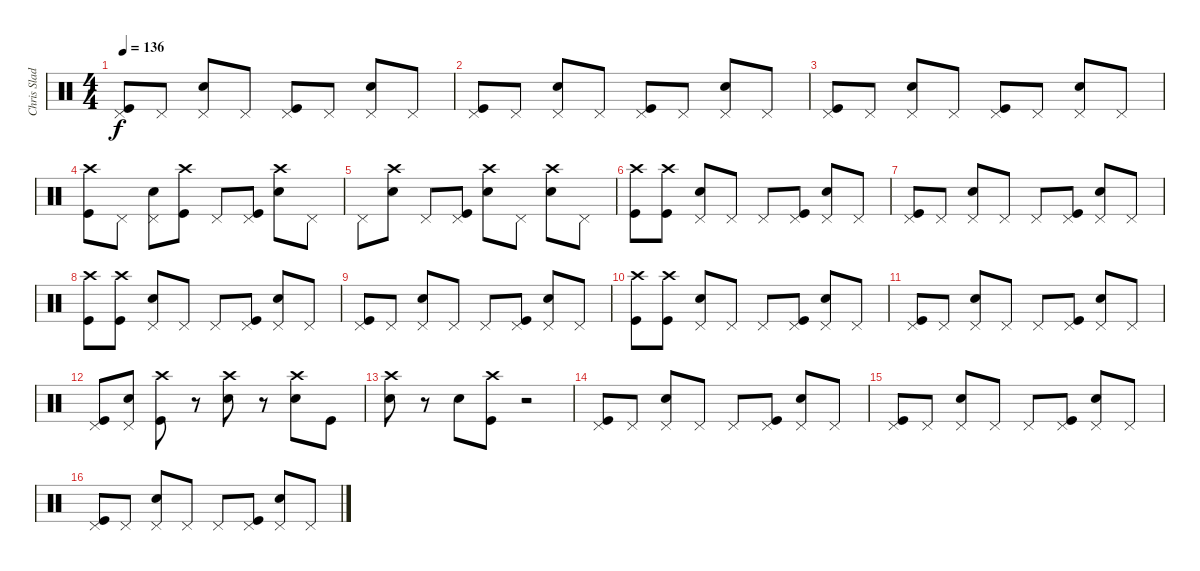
\track ("Chris Slade" "Chris Slad") {instrument percussion}
\staff {score}
\articulation defaults
\ts (4 4)
\tempo 136
\clef neutral
\ks c
("Pedal Hi-Hat (hit)" "Kick (hit)").8{dy f} "Pedal Hi-Hat (hit)".8 ("Pedal Hi-Hat (hit)" "Snare (hit) 2").8 "Pedal Hi-Hat (hit)".8 ("Pedal Hi-Hat (hit)" "Kick (hit)").8 "Pedal Hi-Hat (hit)".8 ("Pedal Hi-Hat (hit)" "Snare (hit) 2").8 "Pedal Hi-Hat (hit)".8 |
("Pedal Hi-Hat (hit)" "Kick (hit)").8 "Pedal Hi-Hat (hit)".8 ("Pedal Hi-Hat (hit)" "Snare (hit) 2").8 "Pedal Hi-Hat (hit)".8 ("Pedal Hi-Hat (hit)" "Kick (hit)").8 "Pedal Hi-Hat (hit)".8 ("Pedal Hi-Hat (hit)" "Snare (hit) 2").8 "Pedal Hi-Hat (hit)".8 |
("Pedal Hi-Hat (hit)" "Kick (hit)").8 "Pedal Hi-Hat (hit)".8 ("Pedal Hi-Hat (hit)" "Snare (hit) 2").8 "Pedal Hi-Hat (hit)".8 ("Pedal Hi-Hat (hit)" "Kick (hit)").8 "Pedal Hi-Hat (hit)".8 ("Pedal Hi-Hat (hit)" "Snare (hit) 2").8 "Pedal Hi-Hat (hit)".8 |
("Crash high (hit)" "Kick (hit)").8 "Pedal Hi-Hat (hit)".8 ("Pedal Hi-Hat (hit)" "Snare (hit) 2").8 ("Crash high (hit)" "Kick (hit)").8 "Pedal Hi-Hat (hit)".8 ("Pedal Hi-Hat (hit)" "Kick (hit)").8 ("Crash high (hit)" "Snare (hit) 2").8 "Pedal Hi-Hat (hit)".8 |
"Pedal Hi-Hat (hit)".8 ("Crash high (hit)" "Snare (hit) 2").8 "Pedal Hi-Hat (hit)".8 ("Pedal Hi-Hat (hit)" "Kick (hit)").8 ("Crash high (hit)" "Snare (hit) 2").8 "Pedal Hi-Hat (hit)".8 ("Crash high (hit)" "Snare (hit) 2").8 "Pedal Hi-Hat (hit)".8 |
("Crash high (hit)" "Kick (hit)").8 ("Crash high (hit)" "Kick (hit)").8 ("Pedal Hi-Hat (hit)" "Snare (hit) 2").8 "Pedal Hi-Hat (hit)".8 "Pedal Hi-Hat (hit)".8 ("Pedal Hi-Hat (hit)" "Kick (hit)").8 ("Pedal Hi-Hat (hit)" "Snare (hit) 2").8 "Pedal Hi-Hat (hit)".8 |
("Pedal Hi-Hat (hit)" "Kick (hit)").8 "Pedal Hi-Hat (hit)".8 ("Pedal Hi-Hat (hit)" "Snare (hit) 2").8 "Pedal Hi-Hat (hit)".8 "Pedal Hi-Hat (hit)".8 ("Pedal Hi-Hat (hit)" "Kick (hit)").8 ("Pedal Hi-Hat (hit)" "Snare (hit) 2").8 "Pedal Hi-Hat (hit)".8 |
("Crash high (hit)" "Kick (hit)").8 ("Crash high (hit)" "Kick (hit)").8 ("Pedal Hi-Hat (hit)" "Snare (hit) 2").8 "Pedal Hi-Hat (hit)".8 "Pedal Hi-Hat (hit)".8 ("Pedal Hi-Hat (hit)" "Kick (hit)").8 ("Pedal Hi-Hat (hit)" "Snare (hit) 2").8 "Pedal Hi-Hat (hit)".8 |
("Pedal Hi-Hat (hit)" "Kick (hit)").8 "Pedal Hi-Hat (hit)".8 ("Pedal Hi-Hat (hit)" "Snare (hit) 2").8 "Pedal Hi-Hat (hit)".8 "Pedal Hi-Hat (hit)".8 ("Pedal Hi-Hat (hit)" "Kick (hit)").8 ("Pedal Hi-Hat (hit)" "Snare (hit) 2").8 "Pedal Hi-Hat (hit)".8 |
("Crash high (hit)" "Kick (hit)").8 ("Crash high (hit)" "Kick (hit)").8 ("Pedal Hi-Hat (hit)" "Snare (hit) 2").8 "Pedal Hi-Hat (hit)".8 "Pedal Hi-Hat (hit)".8 ("Pedal Hi-Hat (hit)" "Kick (hit)").8 ("Pedal Hi-Hat (hit)" "Snare (hit) 2").8 "Pedal Hi-Hat (hit)".8 |
("Pedal Hi-Hat (hit)" "Kick (hit)").8 "Pedal Hi-Hat (hit)".8 ("Pedal Hi-Hat (hit)" "Snare (hit) 2").8 "Pedal Hi-Hat (hit)".8 "Pedal Hi-Hat (hit)".8 ("Pedal Hi-Hat (hit)" "Kick (hit)").8 ("Pedal Hi-Hat (hit)" "Snare (hit) 2").8 "Pedal Hi-Hat (hit)".8 |
("Pedal Hi-Hat (hit)" "Kick (hit)").8 ("Pedal Hi-Hat (hit)" "Snare (hit) 2").8 ("Crash high (hit)" "Kick (hit)").8 r.8 ("Crash high (hit)" "Snare (hit) 2").8 r.8 ("Crash high (hit)" "Snare (hit) 2").8 "Kick (hit)".8 |
("Crash high (hit)" "Snare (hit) 2").8 r.8 "Snare (hit) 2".8 ("Crash high (hit)" "Kick (hit)").8 r.2 |
("Pedal Hi-Hat (hit)" "Kick (hit)").8 "Pedal Hi-Hat (hit)".8 ("Pedal Hi-Hat (hit)" "Snare (hit) 2").8 "Pedal Hi-Hat (hit)".8 "Pedal Hi-Hat (hit)".8 ("Pedal Hi-Hat (hit)" "Kick (hit)").8 ("Pedal Hi-Hat (hit)" "Snare (hit) 2").8 "Pedal Hi-Hat (hit)".8 |
("Pedal Hi-Hat (hit)" "Kick (hit)").8 "Pedal Hi-Hat (hit)".8 ("Pedal Hi-Hat (hit)" "Snare (hit) 2").8 "Pedal Hi-Hat (hit)".8 "Pedal Hi-Hat (hit)".8 ("Pedal Hi-Hat (hit)" "Kick (hit)").8 ("Pedal Hi-Hat (hit)" "Snare (hit) 2").8 "Pedal Hi-Hat (hit)".8 |
("Pedal Hi-Hat (hit)" "Kick (hit)").8 "Pedal Hi-Hat (hit)".8 ("Pedal Hi-Hat (hit)" "Snare (hit) 2").8 "Pedal Hi-Hat (hit)".8 "Pedal Hi-Hat (hit)".8 ("Pedal Hi-Hat (hit)" "Kick (hit)").8 ("Pedal Hi-Hat (hit)" "Snare (hit) 2").8 "Pedal Hi-Hat (hit)".8
